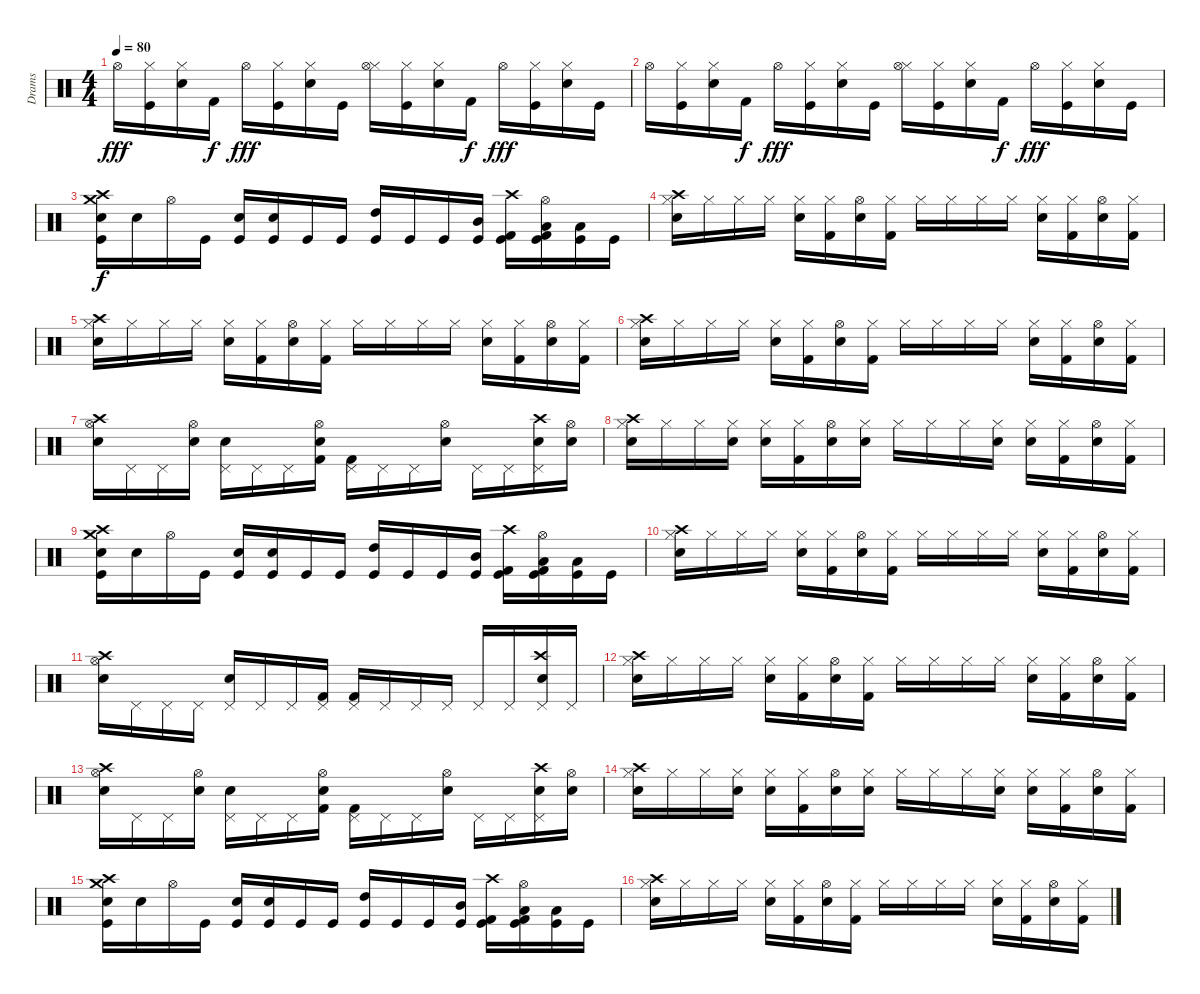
\track ("Drams" "Drams") {instrument percussion}
\staff {score}
\articulation defaults
\ts (4 4)
\tempo 80
\clef neutral
\ks c "Hi-Hat (open)".16{dy fff}
("Kick (hit)" "Hi-Hat (closed)").16 ("Hi-Hat (closed)" "Snare (hit) 2").16 "Kick (hit) 2".16{dy f} "Hi-Hat (open)".16{dy fff} ("Kick (hit)" "Hi-Hat (closed)").16 ("Hi-Hat (closed)" "Snare (hit) 2").16 "Kick (hit)".16 ("Hi-Hat (closed)" "Hi-Hat (open)").16 ("Kick (hit)" "Hi-Hat (closed)").16 ("Hi-Hat (closed)" "Snare (hit) 2").16 "Kick (hit) 2".16{dy f} "Hi-Hat (open)".16{dy fff} ("Kick (hit)" "Hi-Hat (closed)").16 ("Hi-Hat (closed)" "Snare (hit) 2").16 "Kick (hit)".16 |
"Hi-Hat (open)".16 ("Kick (hit)" "Hi-Hat (closed)").16 ("Hi-Hat (closed)" "Snare (hit) 2").16 "Kick (hit) 2".16{dy f} "Hi-Hat (open)".16{dy fff} ("Kick (hit)" "Hi-Hat (closed)").16 ("Hi-Hat (closed)" "Snare (hit) 2").16 "Kick (hit)".16 ("Hi-Hat (closed)" "Hi-Hat (open)").16 ("Kick (hit)" "Hi-Hat (closed)").16 ("Hi-Hat (closed)" "Snare (hit) 2").16 "Kick (hit) 2".16{dy f} "Hi-Hat (open)".16{dy fff} ("Kick (hit)" "Hi-Hat (closed)").16 ("Hi-Hat (closed)" "Snare (hit) 2").16 "Kick (hit)".16 |
("Crash high (hit)" "Crash medium (hit)" "Kick (hit)" "Snare (hit) 2").16{dy f} "Snare (hit) 2".16 "Hi-Hat (open)".16 "Kick (hit)".16 ("Snare (hit) 2" "Kick (hit)").16 ("Snare (hit) 2" "Kick (hit)").16 "Kick (hit)".16 "Kick (hit)".16 ("High Tom (hit)" "Kick (hit)").16 "Kick (hit)".16 "Kick (hit)".16 ("Mid Tom (hit)" "Kick (hit)").16 ("Kick (hit) 2" "Kick (hit)" "Crash high (hit)").16 ("Low Tom (hit)" "Kick (hit) 2" "Kick (hit)" "Hi-Hat (open)").16 ("Low Tom (hit)" "Kick (hit)").16 "Kick (hit)".16 |
("Crash high (hit)" "Snare (hit) 2" "Hi-Hat (closed)").16 "Hi-Hat (closed)".16 "Hi-Hat (closed)".16 "Hi-Hat (closed)".16 ("Snare (hit) 2" "Hi-Hat (closed)").16 ("Hi-Hat (closed)" "Kick (hit) 2").16 ("Snare (hit) 2" "Hi-Hat (open)").16 ("Hi-Hat (closed)" "Kick (hit) 2").16 "Hi-Hat (closed)".16 "Hi-Hat (closed)".16 "Hi-Hat (closed)".16 "Hi-Hat (closed)".16 ("Snare (hit) 2" "Hi-Hat (closed)").16 ("Hi-Hat (closed)" "Kick (hit) 2").16 ("Snare (hit) 2" "Hi-Hat (open)").16 ("Hi-Hat (closed)" "Kick (hit) 2").16 |
("Crash high (hit)" "Snare (hit) 2" "Hi-Hat (closed)").16 "Hi-Hat (closed)".16 "Hi-Hat (closed)".16 "Hi-Hat (closed)".16 ("Snare (hit) 2" "Hi-Hat (closed)").16 ("Hi-Hat (closed)" "Kick (hit) 2").16 ("Snare (hit) 2" "Hi-Hat (open)").16 ("Hi-Hat (closed)" "Kick (hit) 2").16 "Hi-Hat (closed)".16 "Hi-Hat (closed)".16 "Hi-Hat (closed)".16 "Hi-Hat (closed)".16 ("Snare (hit) 2" "Hi-Hat (closed)").16 ("Hi-Hat (closed)" "Kick (hit) 2").16 ("Snare (hit) 2" "Hi-Hat (open)").16 ("Hi-Hat (closed)" "Kick (hit) 2").16 |
("Crash high (hit)" "Snare (hit) 2" "Hi-Hat (closed)").16 "Hi-Hat (closed)".16 "Hi-Hat (closed)".16 "Hi-Hat (closed)".16 ("Snare (hit) 2" "Hi-Hat (closed)").16 ("Hi-Hat (closed)" "Kick (hit) 2").16 ("Snare (hit) 2" "Hi-Hat (open)").16 ("Hi-Hat (closed)" "Kick (hit) 2").16 "Hi-Hat (closed)".16 "Hi-Hat (closed)".16 "Hi-Hat (closed)".16 "Hi-Hat (closed)".16 ("Snare (hit) 2" "Hi-Hat (closed)").16 ("Hi-Hat (closed)" "Kick (hit) 2").16 ("Snare (hit) 2" "Hi-Hat (open)").16 ("Hi-Hat (closed)" "Kick (hit) 2").16 |
("Hi-Hat (open)" "Crash high (hit)" "Snare (hit) 2").16 "Pedal Hi-Hat (hit)".16 "Pedal Hi-Hat (hit)".16 ("Hi-Hat (open)" "Snare (hit) 2").16 ("Pedal Hi-Hat (hit)" "Snare (hit) 2").16 "Pedal Hi-Hat (hit)".16 "Pedal Hi-Hat (hit)".16 ("Hi-Hat (open)" "Snare (hit) 2" "Kick (hit) 2").16 ("Pedal Hi-Hat (hit)" "Kick (hit) 2").16 "Pedal Hi-Hat (hit)".16 "Pedal Hi-Hat (hit)".16 ("Hi-Hat (open)" "Snare (hit) 2").16 "Pedal Hi-Hat (hit)".16 "Pedal Hi-Hat (hit)".16 ("Pedal Hi-Hat (hit)" "Crash high (hit)" "Snare (hit) 2").16 ("Hi-Hat (open)" "Snare (hit) 2").16 |
("Crash high (hit)" "Snare (hit) 2" "Hi-Hat (closed)").16 "Hi-Hat (closed)".16 "Hi-Hat (closed)".16 ("Snare (hit) 2" "Hi-Hat (closed)").16 ("Snare (hit) 2" "Hi-Hat (closed)").16 ("Hi-Hat (closed)" "Kick (hit) 2").16 ("Snare (hit) 2" "Hi-Hat (open)").16 ("Hi-Hat (closed)" "Snare (hit) 2").16 "Hi-Hat (closed)".16 "Hi-Hat (closed)".16 "Hi-Hat (closed)".16 ("Snare (hit) 2" "Hi-Hat (closed)").16 ("Snare (hit) 2" "Hi-Hat (closed)").16 ("Hi-Hat (closed)" "Kick (hit) 2").16 ("Snare (hit) 2" "Hi-Hat (open)").16 ("Hi-Hat (closed)" "Kick (hit) 2").16 |
("Crash high (hit)" "Crash medium (hit)" "Kick (hit)" "Snare (hit) 2").16 "Snare (hit) 2".16 "Hi-Hat (open)".16 "Kick (hit)".16 ("Snare (hit) 2" "Kick (hit)").16 ("Snare (hit) 2" "Kick (hit)").16 "Kick (hit)".16 "Kick (hit)".16 ("High Tom (hit)" "Kick (hit)").16 "Kick (hit)".16 "Kick (hit)".16 ("Mid Tom (hit)" "Kick (hit)").16 ("Kick (hit) 2" "Kick (hit)" "Crash high (hit)").16 ("Low Tom (hit)" "Kick (hit) 2" "Kick (hit)" "Hi-Hat (open)").16 ("Low Tom (hit)" "Kick (hit)").16 "Kick (hit)".16 |
("Crash high (hit)" "Snare (hit) 2" "Hi-Hat (closed)").16 "Hi-Hat (closed)".16 "Hi-Hat (closed)".16 "Hi-Hat (closed)".16 ("Snare (hit) 2" "Hi-Hat (closed)").16 ("Hi-Hat (closed)" "Kick (hit) 2").16 ("Snare (hit) 2" "Hi-Hat (open)").16 ("Hi-Hat (closed)" "Kick (hit) 2").16 "Hi-Hat (closed)".16 "Hi-Hat (closed)".16 "Hi-Hat (closed)".16 "Hi-Hat (closed)".16 ("Snare (hit) 2" "Hi-Hat (closed)").16 ("Hi-Hat (closed)" "Kick (hit) 2").16 ("Snare (hit) 2" "Hi-Hat (open)").16 ("Hi-Hat (closed)" "Kick (hit) 2").16 |
("Hi-Hat (open)" "Crash high (hit)" "Snare (hit) 2").16 "Pedal Hi-Hat (hit)".16 "Pedal Hi-Hat (hit)".16 "Pedal Hi-Hat (hit)".16 ("Pedal Hi-Hat (hit)" "Snare (hit) 2").16 "Pedal Hi-Hat (hit)".16 "Pedal Hi-Hat (hit)".16 ("Pedal Hi-Hat (hit)" "Kick (hit) 2").16 ("Pedal Hi-Hat (hit)" "Kick (hit) 2").16 "Pedal Hi-Hat (hit)".16 "Pedal Hi-Hat (hit)".16 "Pedal Hi-Hat (hit)".16 "Pedal Hi-Hat (hit)".16 "Pedal Hi-Hat (hit)".16 ("Pedal Hi-Hat (hit)" "Crash high (hit)" "Snare (hit) 2").16 "Pedal Hi-Hat (hit)".16 |
("Crash high (hit)" "Snare (hit) 2" "Hi-Hat (closed)").16 "Hi-Hat (closed)".16 "Hi-Hat (closed)".16 "Hi-Hat (closed)".16 ("Snare (hit) 2" "Hi-Hat (closed)").16 ("Hi-Hat (closed)" "Kick (hit) 2").16 ("Snare (hit) 2" "Hi-Hat (open)").16 ("Hi-Hat (closed)" "Kick (hit) 2").16 "Hi-Hat (closed)".16 "Hi-Hat (closed)".16 "Hi-Hat (closed)".16 "Hi-Hat (closed)".16 ("Snare (hit) 2" "Hi-Hat (closed)").16 ("Hi-Hat (closed)" "Kick (hit) 2").16 ("Snare (hit) 2" "Hi-Hat (open)").16 ("Hi-Hat (closed)" "Kick (hit) 2").16 |
("Hi-Hat (open)" "Crash high (hit)" "Snare (hit) 2").16 "Pedal Hi-Hat (hit)".16 "Pedal Hi-Hat (hit)".16 ("Hi-Hat (open)" "Snare (hit) 2").16 ("Pedal Hi-Hat (hit)" "Snare (hit) 2").16 "Pedal Hi-Hat (hit)".16 "Pedal Hi-Hat (hit)".16 ("Hi-Hat (open)" "Snare (hit) 2" "Kick (hit) 2").16 ("Pedal Hi-Hat (hit)" "Kick (hit) 2").16 "Pedal Hi-Hat (hit)".16 "Pedal Hi-Hat (hit)".16 ("Hi-Hat (open)" "Snare (hit) 2").16 "Pedal Hi-Hat (hit)".16 "Pedal Hi-Hat (hit)".16 ("Pedal Hi-Hat (hit)" "Crash high (hit)" "Snare (hit) 2").16 ("Hi-Hat (open)" "Snare (hit) 2").16 |
("Crash high (hit)" "Snare (hit) 2" "Hi-Hat (closed)").16 "Hi-Hat (closed)".16 "Hi-Hat (closed)".16 ("Snare (hit) 2" "Hi-Hat (closed)").16 ("Snare (hit) 2" "Hi-Hat (closed)").16 ("Hi-Hat (closed)" "Kick (hit) 2").16 ("Snare (hit) 2" "Hi-Hat (open)").16 ("Hi-Hat (closed)" "Snare (hit) 2").16 "Hi-Hat (closed)".16 "Hi-Hat (closed)".16 "Hi-Hat (closed)".16 ("Snare (hit) 2" "Hi-Hat (closed)").16 ("Snare (hit) 2" "Hi-Hat (closed)").16 ("Hi-Hat (closed)" "Kick (hit) 2").16 ("Snare (hit) 2" "Hi-Hat (open)").16 ("Hi-Hat (closed)" "Kick (hit) 2").16 |
("Crash high (hit)" "Crash medium (hit)" "Kick (hit)" "Snare (hit) 2").16 "Snare (hit) 2".16 "Hi-Hat (open)".16 "Kick (hit)".16 ("Snare (hit) 2" "Kick (hit)").16 ("Snare (hit) 2" "Kick (hit)").16 "Kick (hit)".16 "Kick (hit)".16 ("High Tom (hit)" "Kick (hit)").16 "Kick (hit)".16 "Kick (hit)".16 ("Mid Tom (hit)" "Kick (hit)").16 ("Kick (hit) 2" "Kick (hit)" "Crash high (hit)").16 ("Low Tom (hit)" "Kick (hit) 2" "Kick (hit)" "Hi-Hat (open)").16 ("Low Tom (hit)" "Kick (hit)").16 "Kick (hit)".16 |
("Crash high (hit)" "Snare (hit) 2" "Hi-Hat (closed)").16 "Hi-Hat (closed)".16 "Hi-Hat (closed)".16 "Hi-Hat (closed)".16 ("Snare (hit) 2" "Hi-Hat (closed)").16 ("Hi-Hat (closed)" "Kick (hit) 2").16 ("Snare (hit) 2" "Hi-Hat (open)").16 ("Hi-Hat (closed)" "Kick (hit) 2").16 "Hi-Hat (closed)".16 "Hi-Hat (closed)".16 "Hi-Hat (closed)".16 "Hi-Hat (closed)".16 ("Snare (hit) 2" "Hi-Hat (closed)").16 ("Hi-Hat (closed)" "Kick (hit) 2").16 ("Snare (hit) 2" "Hi-Hat (open)").16 ("Hi-Hat (closed)" "Kick (hit) 2").16
